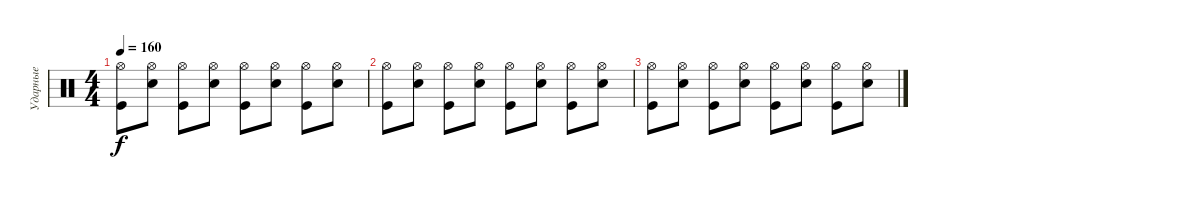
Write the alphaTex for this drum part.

\track ("Ударные" "Ударные") {instrument percussion}
\staff {score}
\articulation defaults
\ts (4 4)
\tempo 160
\clef neutral
\ks c
("Hi-Hat (open)" "Kick (hit)").8{dy f} ("Hi-Hat (open)" "Electric Snare (hit)").8 ("Hi-Hat (open)" "Kick (hit)").8 ("Hi-Hat (open)" "Electric Snare (hit)").8 ("Hi-Hat (open)" "Kick (hit)").8 ("Hi-Hat (open)" "Electric Snare (hit)").8 ("Hi-Hat (open)" "Kick (hit)").8 ("Hi-Hat (open)" "Electric Snare (hit)").8 |
("Hi-Hat (open)" "Kick (hit)").8 ("Hi-Hat (open)" "Electric Snare (hit)").8 ("Hi-Hat (open)" "Kick (hit)").8 ("Hi-Hat (open)" "Electric Snare (hit)").8 ("Hi-Hat (open)" "Kick (hit)").8 ("Hi-Hat (open)" "Electric Snare (hit)").8 ("Hi-Hat (open)" "Kick (hit)").8 ("Hi-Hat (open)" "Electric Snare (hit)").8 |
("Hi-Hat (open)" "Kick (hit)").8 ("Hi-Hat (open)" "Electric Snare (hit)").8 ("Hi-Hat (open)" "Kick (hit)").8 ("Hi-Hat (open)" "Electric Snare (hit)").8 ("Hi-Hat (open)" "Kick (hit)").8 ("Hi-Hat (open)" "Electric Snare (hit)").8 ("Hi-Hat (open)" "Kick (hit)").8 ("Hi-Hat (open)" "Electric Snare (hit)").8
